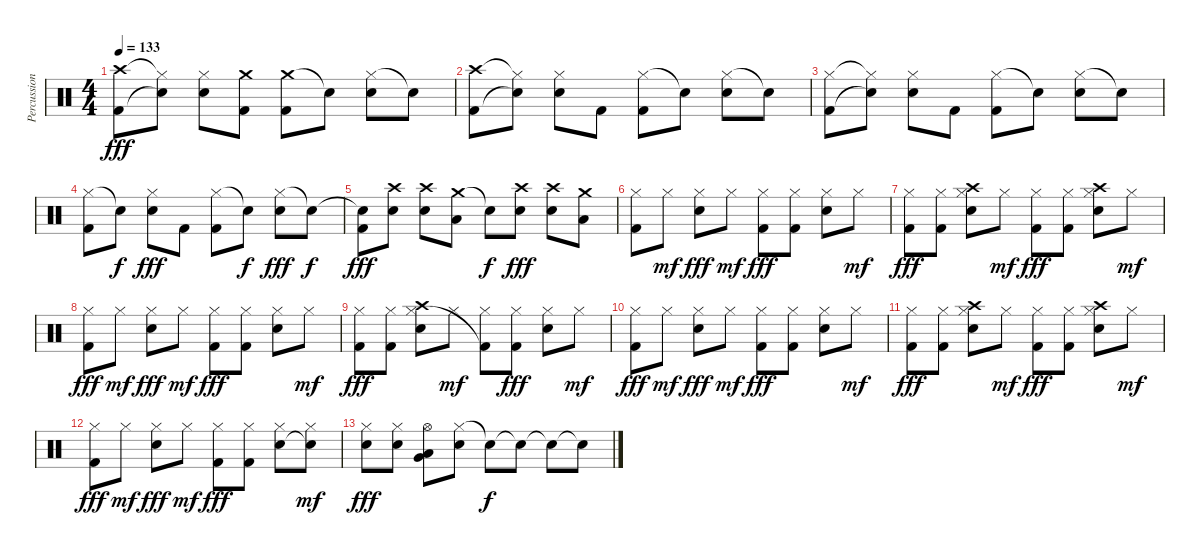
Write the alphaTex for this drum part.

\track ("Percussion" "Percussion") {instrument percussion}
\staff {score}
\articulation defaults
\ts (4 4)
\tempo 133
\clef neutral
\ks c
("Crash high (hit)" "Kick (hit) 2").8{dy fff} ("Hi-Hat (closed)"{t} "Snare (hit)"{t}).8 ("Hi-Hat (closed)" "Electric Snare (hit)").8 ("Crash medium (hit)" "Kick (hit) 2").8 ("Crash medium (hit)" "Kick (hit) 2").8 "Snare (hit)"{t}.8 ("Hi-Hat (closed)" "Electric Snare (hit)").8 "Snare (hit)"{t}.8 |
("Crash high (hit)" "Kick (hit) 2").8 ("Hi-Hat (closed)"{t} "Snare (hit)"{t}).8 ("Hi-Hat (closed)" "Electric Snare (hit)").8 "Kick (hit) 2".8 ("Hi-Hat (closed)" "Kick (hit) 2").8 "Snare (hit)"{t}.8 ("Hi-Hat (closed)" "Electric Snare (hit)").8 "Snare (hit)"{t}.8 |
("Hi-Hat (closed)" "Kick (hit) 2").8 ("Hi-Hat (closed)"{t} "Snare (hit)"{t}).8 ("Hi-Hat (closed)" "Electric Snare (hit)").8 "Kick (hit) 2".8 ("Hi-Hat (closed)" "Kick (hit) 2").8 "Snare (hit)"{t}.8 ("Hi-Hat (closed)" "Electric Snare (hit)").8 "Snare (hit)"{t}.8 |
("Hi-Hat (closed)" "Kick (hit) 2").8 "Snare (hit)"{t}.8{dy f} ("Hi-Hat (closed)" "Electric Snare (hit)").8{dy fff} "Kick (hit) 2".8 ("Hi-Hat (closed)" "Kick (hit) 2").8 "Electric Snare (hit)"{t}.8{dy f} ("Hi-Hat (closed)" "Electric Snare (hit)").8{dy fff} "Snare (hit)"{t}.8{dy f} |
("Snare (hit)"{t} "Kick (hit) 2").8{dy fff} ("Crash high (hit)" "Electric Snare (hit)").8 ("Crash high (hit)" "Electric Snare (hit)").8 ("Crash medium (hit)" "Low Floor Tom (hit)").8 "Snare (hit)"{t}.8{dy f} ("Crash high (hit)" "Electric Snare (hit)").8{dy fff} ("Crash high (hit)" "Electric Snare (hit)").8 ("Crash medium (hit)" "Low Floor Tom (hit)").8 |
("Hi-Hat (closed)" "Kick (hit) 2").8 "Hi-Hat (closed)".8{dy mf} ("Hi-Hat (closed)" "Electric Snare (hit)").8{dy fff} "Hi-Hat (closed)".8{dy mf} ("Hi-Hat (closed)" "Kick (hit) 2").8{dy fff} ("Hi-Hat (closed)" "Kick (hit) 2").8 ("Hi-Hat (closed)" "Electric Snare (hit)").8 "Hi-Hat (closed)".8{dy mf} |
("Hi-Hat (closed)" "Kick (hit) 2").8{dy fff} ("Hi-Hat (closed)" "Kick (hit) 2").8 ("Crash high (hit)" "Hi-Hat (closed)" "Electric Snare (hit)").8 "Hi-Hat (closed)".8{dy mf} ("Hi-Hat (closed)" "Kick (hit) 2").8{dy fff} ("Hi-Hat (closed)" "Kick (hit) 2").8 ("Crash high (hit)" "Hi-Hat (closed)" "Electric Snare (hit)").8 "Hi-Hat (closed)".8{dy mf} |
("Hi-Hat (closed)" "Kick (hit) 2").8{dy fff} "Hi-Hat (closed)".8{dy mf} ("Hi-Hat (closed)" "Electric Snare (hit)").8{dy fff} "Hi-Hat (closed)".8{dy mf} ("Hi-Hat (closed)" "Kick (hit) 2").8{dy fff} ("Hi-Hat (closed)" "Kick (hit) 2").8 ("Hi-Hat (closed)" "Electric Snare (hit)").8 "Hi-Hat (closed)".8{dy mf} |
("Hi-Hat (closed)" "Kick (hit) 2").8{dy fff} ("Hi-Hat (closed)" "Kick (hit) 2").8 ("Crash high (hit)" "Hi-Hat (closed)" "Electric Snare (hit)").8 "Hi-Hat (closed)".8{dy mf} ("Hi-Hat (closed)" "Kick (hit) 2"{t}).8 ("Hi-Hat (closed)" "Kick (hit) 2").8{dy fff} ("Hi-Hat (closed)" "Electric Snare (hit)").8 "Hi-Hat (closed)".8{dy mf} |
("Hi-Hat (closed)" "Kick (hit) 2").8{dy fff} "Hi-Hat (closed)".8{dy mf} ("Hi-Hat (closed)" "Electric Snare (hit)").8{dy fff} "Hi-Hat (closed)".8{dy mf} ("Hi-Hat (closed)" "Kick (hit) 2").8{dy fff} ("Hi-Hat (closed)" "Kick (hit) 2").8 ("Hi-Hat (closed)" "Electric Snare (hit)").8 "Hi-Hat (closed)".8{dy mf} |
("Hi-Hat (closed)" "Kick (hit) 2").8{dy fff} ("Hi-Hat (closed)" "Kick (hit) 2").8 ("Crash high (hit)" "Hi-Hat (closed)" "Electric Snare (hit)").8 "Hi-Hat (closed)".8{dy mf} ("Hi-Hat (closed)" "Kick (hit) 2").8{dy fff} ("Hi-Hat (closed)" "Kick (hit) 2").8 ("Crash high (hit)" "Hi-Hat (closed)" "Electric Snare (hit)").8 "Hi-Hat (closed)".8{dy mf} |
("Hi-Hat (closed)" "Kick (hit) 2").8{dy fff} "Hi-Hat (closed)".8{dy mf} ("Hi-Hat (closed)" "Electric Snare (hit)").8{dy fff} "Hi-Hat (closed)".8{dy mf} ("Hi-Hat (closed)" "Kick (hit) 2").8{dy fff} ("Hi-Hat (closed)" "Kick (hit) 2").8 ("Hi-Hat (closed)" "Electric Snare (hit)").8 ("Hi-Hat (closed)" "Snare (hit)"{t}).8{dy mf} |
("Hi-Hat (closed)" "Electric Snare (hit)").8{dy fff} ("Hi-Hat (closed)" "Electric Snare (hit)").8 ("Hi-Hat (open)" "Low Floor Tom (hit)" "Very Low Tom (hit)").8 ("Hi-Hat (closed)" "Electric Snare (hit)").8 "Snare (hit)"{t}.8{dy f} "Snare (hit)"{t}.8 "Snare (hit)"{t}.8 "Snare (hit)"{t}.8
